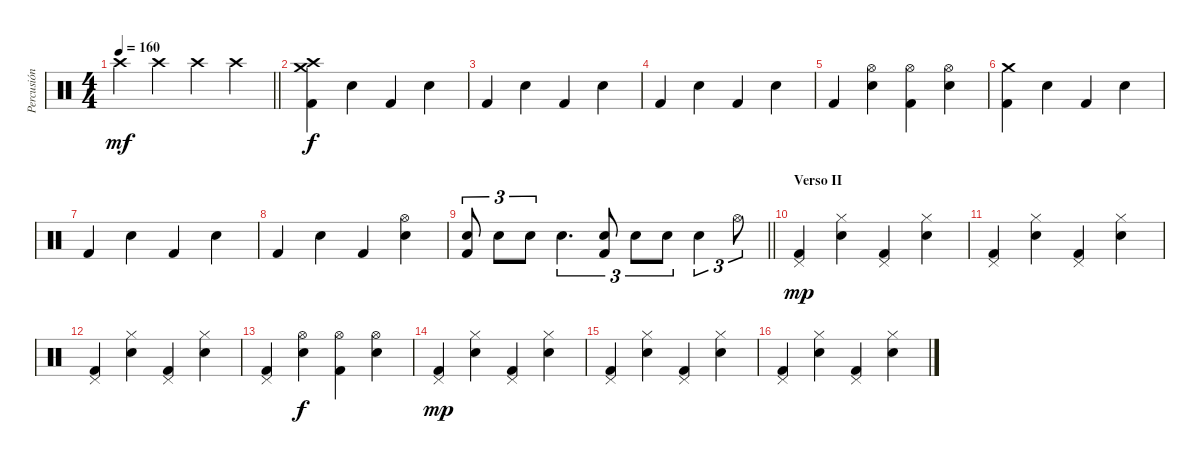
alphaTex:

\track ("Percusión" "Percusión") {instrument percussion}
\staff {score}
\articulation defaults
\ts (4 4)
\tempo 160
\clef neutral
\barLineRight lightlight
\ks c "Crash high (hit)".4{dy mf} "Crash high (hit)".4 "Crash high (hit)".4 "Crash high (hit)".4
|
("Crash high (hit)" "Crash medium (hit)" "Kick (hit) 2").4{dy f} "Electric Snare (hit)".4 "Kick (hit) 2".4 "Electric Snare (hit)".4 |
"Kick (hit) 2".4 "Electric Snare (hit)".4 "Kick (hit) 2".4 "Electric Snare (hit)".4 |
"Kick (hit) 2".4 "Electric Snare (hit)".4 "Kick (hit) 2".4 "Electric Snare (hit)".4 |
"Kick (hit) 2".4 ("Hi-Hat (open)" "Electric Snare (hit)").4 ("Hi-Hat (open)" "Kick (hit) 2").4 ("Hi-Hat (open)" "Electric Snare (hit)").4 |
("Crash medium (hit)" "Kick (hit) 2").4 "Electric Snare (hit)".4 "Kick (hit) 2".4 "Electric Snare (hit)".4 |
"Kick (hit) 2".4 "Electric Snare (hit)".4 "Kick (hit) 2".4 "Electric Snare (hit)".4 |
"Kick (hit) 2".4 "Electric Snare (hit)".4 "Kick (hit) 2".4 ("Hi-Hat (open)" "Electric Snare (hit)").4 |
\barLineRight lightlight
("Electric Snare (hit)" "Kick (hit) 2").8{tu (3 2) beam split} "Electric Snare (hit)".8{tu (3 2)} "Electric Snare (hit)".8{tu (3 2)} "Electric Snare (hit)".4{d tu (3 2)} ("Electric Snare (hit)" "Kick (hit) 2").8{tu (3 2) beam split} "Electric Snare (hit)".8{tu (3 2)} "Electric Snare (hit)".8{tu (3 2)} "Electric Snare (hit)".4{tu (3 2)} "Hi-Hat (open)".8{tu (3 2)} |
\section ("" "Verso II")
("Pedal Hi-Hat (hit)" "Kick (hit) 2").4{dy mp} ("Hi-Hat (closed)" "Electric Snare (hit)").4 ("Pedal Hi-Hat (hit)" "Kick (hit) 2").4 ("Hi-Hat (closed)" "Electric Snare (hit)").4 |
("Pedal Hi-Hat (hit)" "Kick (hit) 2").4 ("Hi-Hat (closed)" "Electric Snare (hit)").4 ("Pedal Hi-Hat (hit)" "Kick (hit) 2").4 ("Hi-Hat (closed)" "Electric Snare (hit)").4 |
("Pedal Hi-Hat (hit)" "Kick (hit) 2").4 ("Hi-Hat (closed)" "Electric Snare (hit)").4 ("Pedal Hi-Hat (hit)" "Kick (hit) 2").4 ("Hi-Hat (closed)" "Electric Snare (hit)").4 |
("Pedal Hi-Hat (hit)" "Kick (hit) 2").4 ("Hi-Hat (open)" "Electric Snare (hit)").4{dy f} ("Hi-Hat (open)" "Kick (hit) 2").4 ("Hi-Hat (open)" "Electric Snare (hit)").4 |
("Pedal Hi-Hat (hit)" "Kick (hit) 2").4{dy mp} ("Hi-Hat (closed)" "Electric Snare (hit)").4 ("Pedal Hi-Hat (hit)" "Kick (hit) 2").4 ("Hi-Hat (closed)" "Electric Snare (hit)").4 |
("Pedal Hi-Hat (hit)" "Kick (hit) 2").4 ("Hi-Hat (closed)" "Electric Snare (hit)").4 ("Pedal Hi-Hat (hit)" "Kick (hit) 2").4 ("Hi-Hat (closed)" "Electric Snare (hit)").4 |
("Pedal Hi-Hat (hit)" "Kick (hit) 2").4 ("Hi-Hat (closed)" "Electric Snare (hit)").4 ("Pedal Hi-Hat (hit)" "Kick (hit) 2").4 ("Hi-Hat (closed)" "Electric Snare (hit)").4
